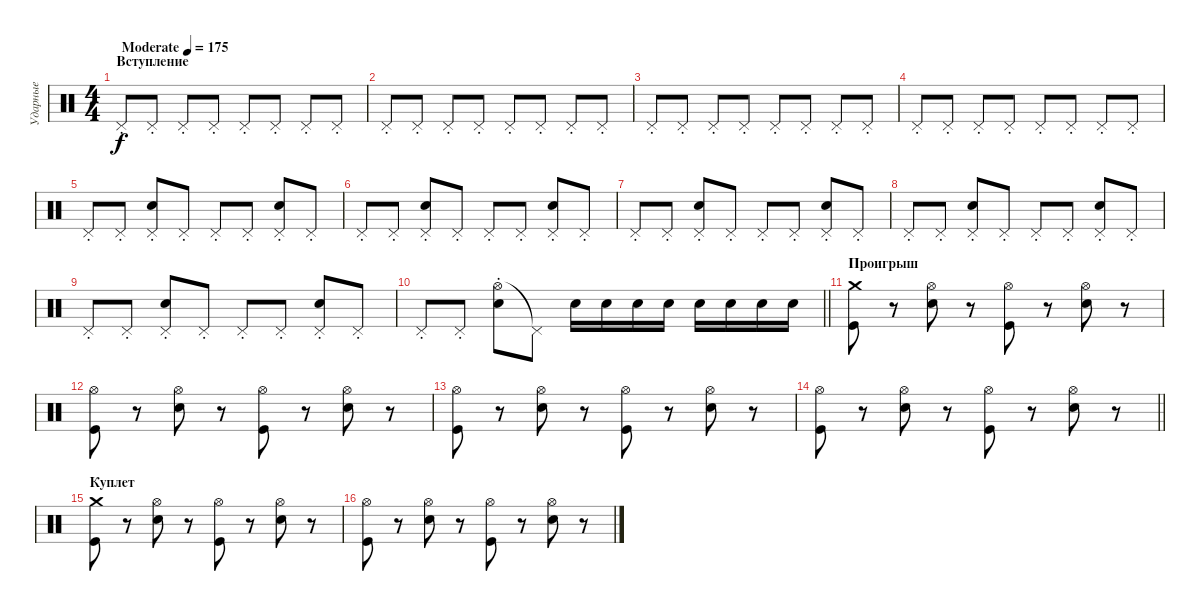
\track ("Ударные" "Ударные") {instrument percussion}
\staff {score}
\articulation defaults
\ts (4 4)
\section ("" "Вступление")
\tempo (175 "Moderate")
\clef neutral
\ks c "Pedal Hi-Hat (hit)"{st}.8{dy f} "Pedal Hi-Hat (hit)"{st}.8 "Pedal Hi-Hat (hit)"{st}.8 "Pedal Hi-Hat (hit)"{st}.8 "Pedal Hi-Hat (hit)"{st}.8 "Pedal Hi-Hat (hit)"{st}.8 "Pedal Hi-Hat (hit)"{st}.8 "Pedal Hi-Hat (hit)"{st}.8
|
"Pedal Hi-Hat (hit)"{st}.8 "Pedal Hi-Hat (hit)"{st}.8 "Pedal Hi-Hat (hit)"{st}.8 "Pedal Hi-Hat (hit)"{st}.8 "Pedal Hi-Hat (hit)"{st}.8 "Pedal Hi-Hat (hit)"{st}.8 "Pedal Hi-Hat (hit)"{st}.8 "Pedal Hi-Hat (hit)"{st}.8 |
"Pedal Hi-Hat (hit)"{st}.8 "Pedal Hi-Hat (hit)"{st}.8 "Pedal Hi-Hat (hit)"{st}.8 "Pedal Hi-Hat (hit)"{st}.8 "Pedal Hi-Hat (hit)"{st}.8 "Pedal Hi-Hat (hit)"{st}.8 "Pedal Hi-Hat (hit)"{st}.8 "Pedal Hi-Hat (hit)"{st}.8 |
"Pedal Hi-Hat (hit)"{st}.8 "Pedal Hi-Hat (hit)"{st}.8 "Pedal Hi-Hat (hit)"{st}.8 "Pedal Hi-Hat (hit)"{st}.8 "Pedal Hi-Hat (hit)"{st}.8 "Pedal Hi-Hat (hit)"{st}.8 "Pedal Hi-Hat (hit)"{st}.8 "Pedal Hi-Hat (hit)"{st}.8 |
"Pedal Hi-Hat (hit)"{st}.8 "Pedal Hi-Hat (hit)"{st}.8 ("Pedal Hi-Hat (hit)"{st} "Electric Snare (hit)").8 "Pedal Hi-Hat (hit)"{st}.8 "Pedal Hi-Hat (hit)"{st}.8 "Pedal Hi-Hat (hit)"{st}.8 ("Pedal Hi-Hat (hit)"{st} "Electric Snare (hit)").8 "Pedal Hi-Hat (hit)"{st}.8 |
"Pedal Hi-Hat (hit)"{st}.8 "Pedal Hi-Hat (hit)"{st}.8 ("Pedal Hi-Hat (hit)"{st} "Electric Snare (hit)").8 "Pedal Hi-Hat (hit)"{st}.8 "Pedal Hi-Hat (hit)"{st}.8 "Pedal Hi-Hat (hit)"{st}.8 ("Pedal Hi-Hat (hit)"{st} "Electric Snare (hit)").8 "Pedal Hi-Hat (hit)"{st}.8 |
"Pedal Hi-Hat (hit)"{st}.8 "Pedal Hi-Hat (hit)"{st}.8 ("Pedal Hi-Hat (hit)"{st} "Electric Snare (hit)").8 "Pedal Hi-Hat (hit)"{st}.8 "Pedal Hi-Hat (hit)"{st}.8 "Pedal Hi-Hat (hit)"{st}.8 ("Pedal Hi-Hat (hit)"{st} "Electric Snare (hit)").8 "Pedal Hi-Hat (hit)"{st}.8 |
"Pedal Hi-Hat (hit)"{st}.8 "Pedal Hi-Hat (hit)"{st}.8 ("Pedal Hi-Hat (hit)"{st} "Electric Snare (hit)").8 "Pedal Hi-Hat (hit)"{st}.8 "Pedal Hi-Hat (hit)"{st}.8 "Pedal Hi-Hat (hit)"{st}.8 ("Pedal Hi-Hat (hit)"{st} "Electric Snare (hit)").8 "Pedal Hi-Hat (hit)"{st}.8 |
"Pedal Hi-Hat (hit)"{st}.8 "Pedal Hi-Hat (hit)"{st}.8 ("Pedal Hi-Hat (hit)"{st} "Electric Snare (hit)").8 "Pedal Hi-Hat (hit)"{st}.8 "Pedal Hi-Hat (hit)"{st}.8 "Pedal Hi-Hat (hit)"{st}.8 ("Pedal Hi-Hat (hit)"{st} "Electric Snare (hit)").8 "Pedal Hi-Hat (hit)"{st}.8 |
\barLineRight lightlight "Pedal Hi-Hat (hit)"{st}.8 "Pedal Hi-Hat (hit)"{st}.8
("Hi-Hat (open)"{st} "Electric Snare (hit)").8 "Pedal Hi-Hat (hit)"{t}.8 "Electric Snare (hit)".16 "Electric Snare (hit)".16 "Electric Snare (hit)".16 "Electric Snare (hit)".16 "Electric Snare (hit)".16 "Electric Snare (hit)".16 "Electric Snare (hit)".16 "Electric Snare (hit)".16 |
\section ("" "Проигрыш")
("Crash medium (hit)" "Kick (hit)").8 r.8 ("Hi-Hat (open)" "Electric Snare (hit)").8 r.8 ("Hi-Hat (open)" "Kick (hit)").8 r.8 ("Hi-Hat (open)" "Electric Snare (hit)").8 r.8 |
("Hi-Hat (open)" "Kick (hit)").8 r.8 ("Hi-Hat (open)" "Electric Snare (hit)").8 r.8 ("Hi-Hat (open)" "Kick (hit)").8 r.8 ("Hi-Hat (open)" "Electric Snare (hit)").8 r.8 |
("Hi-Hat (open)" "Kick (hit)").8 r.8 ("Hi-Hat (open)" "Electric Snare (hit)").8 r.8 ("Hi-Hat (open)" "Kick (hit)").8 r.8 ("Hi-Hat (open)" "Electric Snare (hit)").8 r.8 |
\barLineRight lightlight
("Hi-Hat (open)" "Kick (hit)").8 r.8 ("Hi-Hat (open)" "Electric Snare (hit)").8 r.8 ("Hi-Hat (open)" "Kick (hit)").8 r.8 ("Hi-Hat (open)" "Electric Snare (hit)").8 r.8 |
\section ("" "Куплет")
("Crash medium (hit)" "Kick (hit)").8 r.8 ("Hi-Hat (open)" "Electric Snare (hit)").8 r.8 ("Hi-Hat (open)" "Kick (hit)").8 r.8 ("Hi-Hat (open)" "Electric Snare (hit)").8 r.8 |
("Hi-Hat (open)" "Kick (hit)").8 r.8 ("Hi-Hat (open)" "Electric Snare (hit)").8 r.8 ("Hi-Hat (open)" "Kick (hit)").8 r.8 ("Hi-Hat (open)" "Electric Snare (hit)").8 r.8
